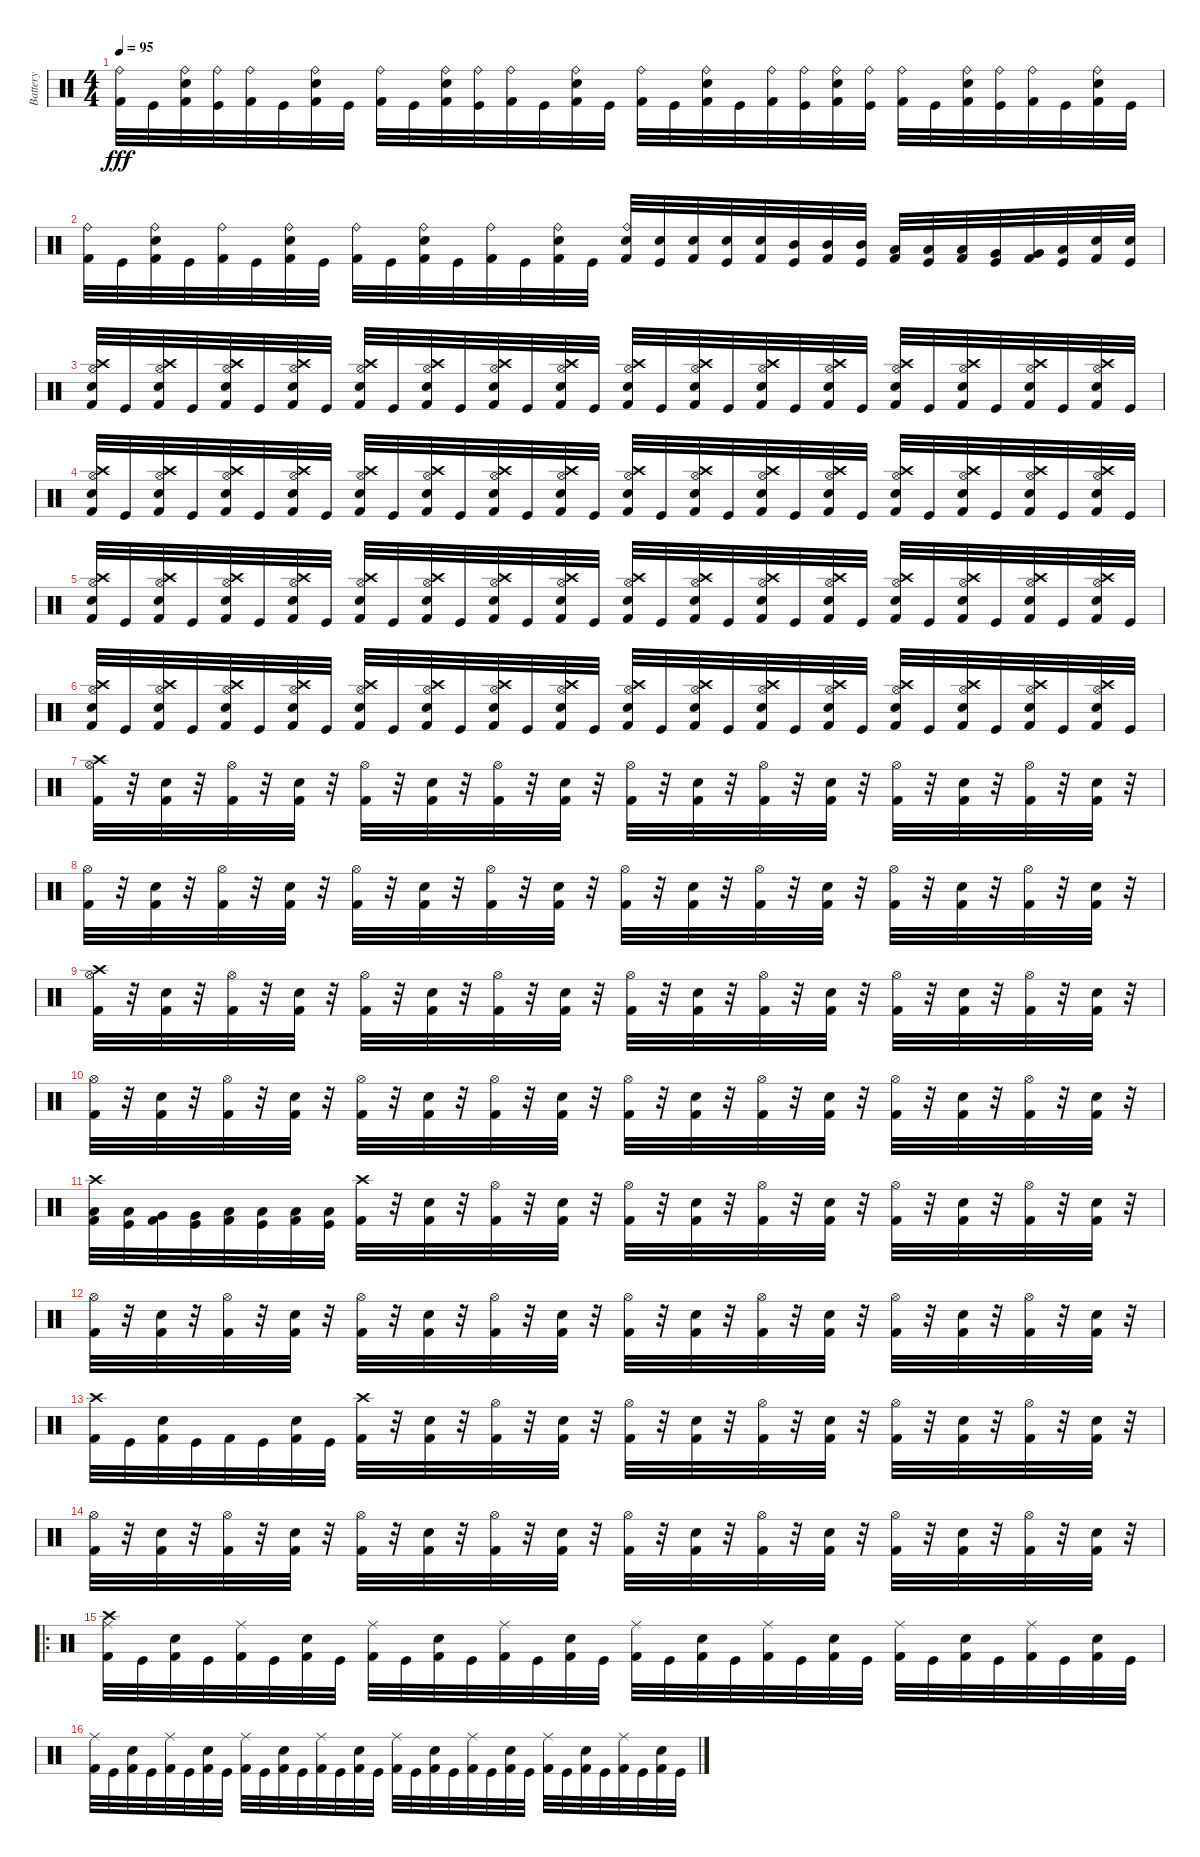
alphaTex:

\track ("Battery" "Battery") {instrument percussion}
\staff {score}
\articulation defaults
\ts (4 4)
\tempo 95
\clef neutral
\ks c
("Kick (hit) 2" "Ride (bell)").32{dy fff} "Kick (hit)".32 ("Ride (bell)" "Electric Snare (hit)" "Kick (hit) 2").32 ("Ride (bell)" "Kick (hit)").32 ("Kick (hit) 2" "Ride (bell)").32 "Kick (hit)".32 ("Ride (bell)" "Kick (hit) 2" "Electric Snare (hit)").32 "Kick (hit)".32 ("Kick (hit) 2" "Ride (bell)").32 "Kick (hit)".32 ("Electric Snare (hit)" "Kick (hit) 2" "Ride (bell)").32 ("Ride (bell)" "Kick (hit)").32 ("Ride (bell)" "Kick (hit) 2").32 "Kick (hit)".32 ("Kick (hit) 2" "Electric Snare (hit)" "Ride (bell)").32 "Kick (hit)".32 ("Ride (bell)" "Kick (hit) 2").32 "Kick (hit)".32 ("Kick (hit) 2" "Ride (bell)" "Electric Snare (hit)").32 "Kick (hit)".32 ("Ride (bell)" "Kick (hit) 2").32 ("Ride (bell)" "Kick (hit)").32 ("Electric Snare (hit)" "Kick (hit) 2" "Ride (bell)").32 ("Ride (bell)" "Kick (hit)").32 ("Ride (bell)" "Kick (hit) 2").32 "Kick (hit)".32 ("Kick (hit) 2" "Electric Snare (hit)" "Ride (bell)").32 ("Kick (hit)" "Ride (bell)").32 ("Ride (bell)" "Kick (hit) 2").32 "Kick (hit)".32 ("Electric Snare (hit)" "Kick (hit) 2" "Ride (bell)").32 "Kick (hit)".32 |
("Ride (bell)" "Kick (hit) 2").32 "Kick (hit)".32 ("Kick (hit) 2" "Ride (bell)" "Electric Snare (hit)").32 "Kick (hit)".32 ("Ride (bell)" "Kick (hit) 2").32 "Kick (hit)".32 ("Kick (hit) 2" "Electric Snare (hit)" "Ride (bell)").32 "Kick (hit)".32 ("Ride (bell)" "Kick (hit) 2").32 "Kick (hit)".32 ("Kick (hit) 2" "Ride (bell)" "Electric Snare (hit)").32 "Kick (hit)".32 ("Kick (hit) 2" "Ride (bell)").32 "Kick (hit)".32 ("Kick (hit) 2" "Electric Snare (hit)" "Ride (bell)").32 "Kick (hit)".32 ("Electric Snare (hit)" "Ride (bell)" "Kick (hit) 2").32 ("Kick (hit)" "Electric Snare (hit)").32 ("Electric Snare (hit)" "Kick (hit) 2").32 ("Electric Snare (hit)" "Kick (hit)").32 ("Kick (hit) 2" "Electric Snare (hit)").32 ("Mid Tom (hit)" "Kick (hit)").32 ("Kick (hit) 2" "Mid Tom (hit)").32 ("Mid Tom (hit)" "Kick (hit)").32 ("Kick (hit) 2" "Low Tom (hit)").32 ("Low Tom (hit)" "Kick (hit)").32 ("Low Tom (hit)" "Kick (hit) 2").32 ("Very Low Tom (hit)" "Kick (hit)").32 ("Kick (hit) 2" "Very Low Tom (hit)").32 ("Low Floor Tom (hit)" "Kick (hit)").32 ("Kick (hit) 2" "Electric Snare (hit)").32 ("Electric Snare (hit)" "Kick (hit)").32 |
("Hi-Hat (open)" "Kick (hit) 2" "Crash high (hit)" "Snare (hit) 2").32 "Kick (hit)".32 ("Crash high (hit)" "Kick (hit) 2" "Hi-Hat (open)" "Snare (hit) 2").32 "Kick (hit)".32 ("Hi-Hat (open)" "Crash high (hit)" "Kick (hit) 2" "Snare (hit) 2").32 "Kick (hit)".32 ("Kick (hit) 2" "Crash high (hit)" "Hi-Hat (open)" "Snare (hit) 2").32 "Kick (hit)".32 ("Kick (hit) 2" "Hi-Hat (open)" "Snare (hit) 2" "Crash high (hit)").32 "Kick (hit)".32 ("Kick (hit) 2" "Snare (hit) 2" "Hi-Hat (open)" "Crash high (hit)").32 "Kick (hit)".32 ("Hi-Hat (open)" "Kick (hit) 2" "Snare (hit) 2" "Crash high (hit)").32 "Kick (hit)".32 ("Kick (hit) 2" "Hi-Hat (open)" "Crash high (hit)" "Snare (hit) 2").32 "Kick (hit)".32 ("Kick (hit) 2" "Snare (hit) 2" "Hi-Hat (open)" "Crash high (hit)").32 "Kick (hit)".32 ("Snare (hit) 2" "Hi-Hat (open)" "Crash high (hit)" "Kick (hit) 2").32 "Kick (hit)".32 ("Snare (hit) 2" "Hi-Hat (open)" "Kick (hit) 2" "Crash high (hit)").32 "Kick (hit)".32 ("Snare (hit) 2" "Kick (hit) 2" "Crash high (hit)" "Hi-Hat (open)").32 "Kick (hit)".32 ("Crash high (hit)" "Hi-Hat (open)" "Kick (hit) 2" "Snare (hit) 2").32 "Kick (hit)".32 ("Snare (hit) 2" "Kick (hit) 2" "Crash high (hit)" "Hi-Hat (open)").32 "Kick (hit)".32 ("Snare (hit) 2" "Crash high (hit)" "Hi-Hat (open)" "Kick (hit) 2").32 "Kick (hit)".32 ("Hi-Hat (open)" "Kick (hit) 2" "Crash high (hit)" "Snare (hit) 2").32 "Kick (hit)".32 |
("Hi-Hat (open)" "Kick (hit) 2" "Crash high (hit)" "Snare (hit) 2").32 "Kick (hit)".32 ("Crash high (hit)" "Kick (hit) 2" "Hi-Hat (open)" "Snare (hit) 2").32 "Kick (hit)".32 ("Hi-Hat (open)" "Crash high (hit)" "Kick (hit) 2" "Snare (hit) 2").32 "Kick (hit)".32 ("Kick (hit) 2" "Crash high (hit)" "Hi-Hat (open)" "Snare (hit) 2").32 "Kick (hit)".32 ("Kick (hit) 2" "Hi-Hat (open)" "Snare (hit) 2" "Crash high (hit)").32 "Kick (hit)".32 ("Kick (hit) 2" "Snare (hit) 2" "Hi-Hat (open)" "Crash high (hit)").32 "Kick (hit)".32 ("Hi-Hat (open)" "Kick (hit) 2" "Snare (hit) 2" "Crash high (hit)").32 "Kick (hit)".32 ("Kick (hit) 2" "Hi-Hat (open)" "Crash high (hit)" "Snare (hit) 2").32 "Kick (hit)".32 ("Kick (hit) 2" "Snare (hit) 2" "Hi-Hat (open)" "Crash high (hit)").32 "Kick (hit)".32 ("Snare (hit) 2" "Hi-Hat (open)" "Crash high (hit)" "Kick (hit) 2").32 "Kick (hit)".32 ("Snare (hit) 2" "Hi-Hat (open)" "Kick (hit) 2" "Crash high (hit)").32 "Kick (hit)".32 ("Snare (hit) 2" "Kick (hit) 2" "Crash high (hit)" "Hi-Hat (open)").32 "Kick (hit)".32 ("Crash high (hit)" "Hi-Hat (open)" "Kick (hit) 2" "Snare (hit) 2").32 "Kick (hit)".32 ("Snare (hit) 2" "Kick (hit) 2" "Crash high (hit)" "Hi-Hat (open)").32 "Kick (hit)".32 ("Snare (hit) 2" "Crash high (hit)" "Hi-Hat (open)" "Kick (hit) 2").32 "Kick (hit)".32 ("Hi-Hat (open)" "Kick (hit) 2" "Crash high (hit)" "Snare (hit) 2").32 "Kick (hit)".32 |
("Hi-Hat (open)" "Kick (hit) 2" "Crash high (hit)" "Snare (hit) 2").32 "Kick (hit)".32 ("Crash high (hit)" "Kick (hit) 2" "Hi-Hat (open)" "Snare (hit) 2").32 "Kick (hit)".32 ("Hi-Hat (open)" "Crash high (hit)" "Kick (hit) 2" "Snare (hit) 2").32 "Kick (hit)".32 ("Kick (hit) 2" "Crash high (hit)" "Hi-Hat (open)" "Snare (hit) 2").32 "Kick (hit)".32 ("Kick (hit) 2" "Hi-Hat (open)" "Snare (hit) 2" "Crash high (hit)").32 "Kick (hit)".32 ("Kick (hit) 2" "Snare (hit) 2" "Hi-Hat (open)" "Crash high (hit)").32 "Kick (hit)".32 ("Hi-Hat (open)" "Kick (hit) 2" "Snare (hit) 2" "Crash high (hit)").32 "Kick (hit)".32 ("Kick (hit) 2" "Hi-Hat (open)" "Crash high (hit)" "Snare (hit) 2").32 "Kick (hit)".32 ("Kick (hit) 2" "Snare (hit) 2" "Hi-Hat (open)" "Crash high (hit)").32 "Kick (hit)".32 ("Snare (hit) 2" "Hi-Hat (open)" "Crash high (hit)" "Kick (hit) 2").32 "Kick (hit)".32 ("Snare (hit) 2" "Hi-Hat (open)" "Kick (hit) 2" "Crash high (hit)").32 "Kick (hit)".32 ("Snare (hit) 2" "Kick (hit) 2" "Crash high (hit)" "Hi-Hat (open)").32 "Kick (hit)".32 ("Crash high (hit)" "Hi-Hat (open)" "Kick (hit) 2" "Snare (hit) 2").32 "Kick (hit)".32 ("Snare (hit) 2" "Kick (hit) 2" "Crash high (hit)" "Hi-Hat (open)").32 "Kick (hit)".32 ("Snare (hit) 2" "Crash high (hit)" "Hi-Hat (open)" "Kick (hit) 2").32 "Kick (hit)".32 ("Hi-Hat (open)" "Kick (hit) 2" "Crash high (hit)" "Snare (hit) 2").32 "Kick (hit)".32 |
("Hi-Hat (open)" "Kick (hit) 2" "Crash high (hit)" "Snare (hit) 2").32 "Kick (hit)".32 ("Crash high (hit)" "Kick (hit) 2" "Hi-Hat (open)" "Snare (hit) 2").32 "Kick (hit)".32 ("Hi-Hat (open)" "Crash high (hit)" "Kick (hit) 2" "Snare (hit) 2").32 "Kick (hit)".32 ("Kick (hit) 2" "Crash high (hit)" "Hi-Hat (open)" "Snare (hit) 2").32 "Kick (hit)".32 ("Kick (hit) 2" "Hi-Hat (open)" "Snare (hit) 2" "Crash high (hit)").32 "Kick (hit)".32 ("Kick (hit) 2" "Snare (hit) 2" "Hi-Hat (open)" "Crash high (hit)").32 "Kick (hit)".32 ("Hi-Hat (open)" "Kick (hit) 2" "Snare (hit) 2" "Crash high (hit)").32 "Kick (hit)".32 ("Kick (hit) 2" "Hi-Hat (open)" "Crash high (hit)" "Snare (hit) 2").32 "Kick (hit)".32 ("Kick (hit) 2" "Snare (hit) 2" "Hi-Hat (open)" "Crash high (hit)").32 "Kick (hit)".32 ("Snare (hit) 2" "Hi-Hat (open)" "Crash high (hit)" "Kick (hit) 2").32 "Kick (hit)".32 ("Snare (hit) 2" "Hi-Hat (open)" "Kick (hit) 2" "Crash high (hit)").32 "Kick (hit)".32 ("Snare (hit) 2" "Kick (hit) 2" "Crash high (hit)" "Hi-Hat (open)").32 "Kick (hit)".32 ("Crash high (hit)" "Hi-Hat (open)" "Kick (hit) 2" "Snare (hit) 2").32 "Kick (hit)".32 ("Snare (hit) 2" "Kick (hit) 2" "Crash high (hit)" "Hi-Hat (open)").32 "Kick (hit)".32 ("Snare (hit) 2" "Crash high (hit)" "Hi-Hat (open)" "Kick (hit) 2").32 "Kick (hit)".32 ("Hi-Hat (open)" "Kick (hit) 2" "Crash high (hit)" "Snare (hit) 2").32 "Kick (hit)".32 |
("Kick (hit) 2" "Hi-Hat (open)" "Crash high (hit)").32 r.32 ("Electric Snare (hit)" "Kick (hit) 2").32 r.32 ("Kick (hit) 2" "Hi-Hat (open)").32 r.32 ("Kick (hit) 2" "Electric Snare (hit)").32 r.32 ("Kick (hit) 2" "Hi-Hat (open)").32 r.32 ("Kick (hit) 2" "Electric Snare (hit)").32 r.32 ("Hi-Hat (open)" "Kick (hit) 2").32 r.32 ("Electric Snare (hit)" "Kick (hit) 2").32 r.32 ("Hi-Hat (open)" "Kick (hit) 2").32 r.32 ("Electric Snare (hit)" "Kick (hit) 2").32 r.32 ("Hi-Hat (open)" "Kick (hit) 2").32 r.32 ("Electric Snare (hit)" "Kick (hit) 2").32 r.32 ("Hi-Hat (open)" "Kick (hit) 2").32 r.32 ("Electric Snare (hit)" "Kick (hit) 2").32 r.32 ("Hi-Hat (open)" "Kick (hit) 2").32 r.32 ("Electric Snare (hit)" "Kick (hit) 2").32 r.32 |
("Kick (hit) 2" "Hi-Hat (open)").32 r.32 ("Kick (hit) 2" "Electric Snare (hit)").32 r.32 ("Kick (hit) 2" "Hi-Hat (open)").32 r.32 ("Kick (hit) 2" "Electric Snare (hit)").32 r.32 ("Hi-Hat (open)" "Kick (hit) 2").32 r.32 ("Kick (hit) 2" "Electric Snare (hit)").32 r.32 ("Kick (hit) 2" "Hi-Hat (open)").32 r.32 ("Kick (hit) 2" "Electric Snare (hit)").32 r.32 ("Kick (hit) 2" "Hi-Hat (open)").32 r.32 ("Electric Snare (hit)" "Kick (hit) 2").32 r.32 ("Hi-Hat (open)" "Kick (hit) 2").32 r.32 ("Electric Snare (hit)" "Kick (hit) 2").32 r.32 ("Hi-Hat (open)" "Kick (hit) 2").32 r.32 ("Kick (hit) 2" "Electric Snare (hit)").32 r.32 ("Kick (hit) 2" "Hi-Hat (open)").32 r.32 ("Electric Snare (hit)" "Kick (hit) 2").32 r.32 |
("Kick (hit) 2" "Hi-Hat (open)" "Crash high (hit)").32 r.32 ("Electric Snare (hit)" "Kick (hit) 2").32 r.32 ("Kick (hit) 2" "Hi-Hat (open)").32 r.32 ("Kick (hit) 2" "Electric Snare (hit)").32 r.32 ("Kick (hit) 2" "Hi-Hat (open)").32 r.32 ("Kick (hit) 2" "Electric Snare (hit)").32 r.32 ("Hi-Hat (open)" "Kick (hit) 2").32 r.32 ("Electric Snare (hit)" "Kick (hit) 2").32 r.32 ("Hi-Hat (open)" "Kick (hit) 2").32 r.32 ("Electric Snare (hit)" "Kick (hit) 2").32 r.32 ("Hi-Hat (open)" "Kick (hit) 2").32 r.32 ("Electric Snare (hit)" "Kick (hit) 2").32 r.32 ("Hi-Hat (open)" "Kick (hit) 2").32 r.32 ("Electric Snare (hit)" "Kick (hit) 2").32 r.32 ("Hi-Hat (open)" "Kick (hit) 2").32 r.32 ("Electric Snare (hit)" "Kick (hit) 2").32 r.32 |
("Kick (hit) 2" "Hi-Hat (open)").32 r.32 ("Kick (hit) 2" "Electric Snare (hit)").32 r.32 ("Kick (hit) 2" "Hi-Hat (open)").32 r.32 ("Kick (hit) 2" "Electric Snare (hit)").32 r.32 ("Hi-Hat (open)" "Kick (hit) 2").32 r.32 ("Kick (hit) 2" "Electric Snare (hit)").32 r.32 ("Kick (hit) 2" "Hi-Hat (open)").32 r.32 ("Kick (hit) 2" "Electric Snare (hit)").32 r.32 ("Kick (hit) 2" "Hi-Hat (open)").32 r.32 ("Electric Snare (hit)" "Kick (hit) 2").32 r.32 ("Hi-Hat (open)" "Kick (hit) 2").32 r.32 ("Electric Snare (hit)" "Kick (hit) 2").32 r.32 ("Hi-Hat (open)" "Kick (hit) 2").32 r.32 ("Kick (hit) 2" "Electric Snare (hit)").32 r.32 ("Kick (hit) 2" "Hi-Hat (open)").32 r.32 ("Electric Snare (hit)" "Kick (hit) 2").32 r.32 |
("Crash high (hit)" "Low Tom (hit)" "Kick (hit) 2").32 ("Low Tom (hit)" "Kick (hit)").32 ("Very Low Tom (hit)" "Kick (hit) 2").32 ("Very Low Tom (hit)" "Kick (hit)").32 ("Low Floor Tom (hit)" "Kick (hit) 2").32 ("Kick (hit)" "Low Floor Tom (hit)").32 ("Low Tom (hit)" "Kick (hit) 2").32 ("Kick (hit)" "Low Tom (hit)").32 ("Crash high (hit)" "Kick (hit) 2").32 r.32 ("Electric Snare (hit)" "Kick (hit) 2").32 r.32 ("Kick (hit) 2" "Hi-Hat (open)").32 r.32 ("Kick (hit) 2" "Electric Snare (hit)").32 r.32 ("Kick (hit) 2" "Hi-Hat (open)").32 r.32 ("Electric Snare (hit)" "Kick (hit) 2").32 r.32 ("Hi-Hat (open)" "Kick (hit) 2").32 r.32 ("Electric Snare (hit)" "Kick (hit) 2").32 r.32 ("Hi-Hat (open)" "Kick (hit) 2").32 r.32 ("Electric Snare (hit)" "Kick (hit) 2").32 r.32 ("Kick (hit) 2" "Hi-Hat (open)").32 r.32 ("Kick (hit) 2" "Electric Snare (hit)").32 r.32 |
("Hi-Hat (open)" "Kick (hit) 2").32 r.32 ("Kick (hit) 2" "Electric Snare (hit)").32 r.32 ("Kick (hit) 2" "Hi-Hat (open)").32 r.32 ("Electric Snare (hit)" "Kick (hit) 2").32 r.32 ("Hi-Hat (open)" "Kick (hit) 2").32 r.32 ("Kick (hit) 2" "Electric Snare (hit)").32 r.32 ("Kick (hit) 2" "Hi-Hat (open)").32 r.32 ("Kick (hit) 2" "Electric Snare (hit)").32 r.32 ("Hi-Hat (open)" "Kick (hit) 2").32 r.32 ("Kick (hit) 2" "Electric Snare (hit)").32 r.32 ("Kick (hit) 2" "Hi-Hat (open)").32 r.32 ("Kick (hit) 2" "Electric Snare (hit)").32 r.32 ("Hi-Hat (open)" "Kick (hit) 2").32 r.32 ("Electric Snare (hit)" "Kick (hit) 2").32 r.32 ("Hi-Hat (open)" "Kick (hit) 2").32 r.32 ("Kick (hit) 2" "Electric Snare (hit)").32 r.32 |
("Crash high (hit)" "Kick (hit) 2").32 "Kick (hit)".32 ("Kick (hit) 2" "Electric Snare (hit)").32 "Kick (hit)".32 "Kick (hit) 2".32 "Kick (hit)".32 ("Electric Snare (hit)" "Kick (hit) 2").32 "Kick (hit)".32 ("Kick (hit) 2" "Crash high (hit)").32 r.32 ("Electric Snare (hit)" "Kick (hit) 2").32 r.32 ("Hi-Hat (open)" "Kick (hit) 2").32 r.32 ("Kick (hit) 2" "Electric Snare (hit)").32 r.32 ("Hi-Hat (open)" "Kick (hit) 2").32 r.32 ("Electric Snare (hit)" "Kick (hit) 2").32 r.32 ("Kick (hit) 2" "Hi-Hat (open)").32 r.32 ("Kick (hit) 2" "Electric Snare (hit)").32 r.32 ("Kick (hit) 2" "Hi-Hat (open)").32 r.32 ("Electric Snare (hit)" "Kick (hit) 2").32 r.32 ("Hi-Hat (open)" "Kick (hit) 2").32 r.32 ("Kick (hit) 2" "Electric Snare (hit)").32 r.32 |
("Hi-Hat (open)" "Kick (hit) 2").32 r.32 ("Kick (hit) 2" "Electric Snare (hit)").32 r.32 ("Hi-Hat (open)" "Kick (hit) 2").32 r.32 ("Electric Snare (hit)" "Kick (hit) 2").32 r.32 ("Hi-Hat (open)" "Kick (hit) 2").32 r.32 ("Kick (hit) 2" "Electric Snare (hit)").32 r.32 ("Kick (hit) 2" "Hi-Hat (open)").32 r.32 ("Kick (hit) 2" "Electric Snare (hit)").32 r.32 ("Hi-Hat (open)" "Kick (hit) 2").32 r.32 ("Electric Snare (hit)" "Kick (hit) 2").32 r.32 ("Hi-Hat (open)" "Kick (hit) 2").32 r.32 ("Kick (hit) 2" "Electric Snare (hit)").32 r.32 ("Kick (hit) 2" "Hi-Hat (open)").32 r.32 ("Electric Snare (hit)" "Kick (hit) 2").32 r.32 ("Hi-Hat (open)" "Kick (hit) 2").32 r.32 ("Kick (hit) 2" "Electric Snare (hit)").32 r.32 |
\ro
("Ride (middle)" "Kick (hit) 2" "Crash high (hit)").32 "Kick (hit)".32 ("Kick (hit) 2" "Electric Snare (hit)").32 "Kick (hit)".32 ("Ride (middle)" "Kick (hit) 2").32 "Kick (hit)".32 ("Electric Snare (hit)" "Kick (hit) 2").32 "Kick (hit)".32 ("Ride (middle)" "Kick (hit) 2").32 "Kick (hit)".32 ("Kick (hit) 2" "Electric Snare (hit)").32 "Kick (hit)".32 ("Kick (hit) 2" "Ride (middle)").32 "Kick (hit)".32 ("Kick (hit) 2" "Electric Snare (hit)").32 "Kick (hit)".32 ("Kick (hit) 2" "Ride (middle)").32 "Kick (hit)".32 ("Electric Snare (hit)" "Kick (hit) 2").32 "Kick (hit)".32 ("Kick (hit) 2" "Ride (middle)").32 "Kick (hit)".32 ("Kick (hit) 2" "Electric Snare (hit)").32 "Kick (hit)".32 ("Ride (middle)" "Kick (hit) 2").32 "Kick (hit)".32 ("Electric Snare (hit)" "Kick (hit) 2").32 "Kick (hit)".32 ("Kick (hit) 2" "Ride (middle)").32 "Kick (hit)".32 ("Electric Snare (hit)" "Kick (hit) 2").32 "Kick (hit)".32 |
("Kick (hit) 2" "Ride (middle)").32 "Kick (hit)".32 ("Kick (hit) 2" "Electric Snare (hit)").32 "Kick (hit)".32 ("Ride (middle)" "Kick (hit) 2").32 "Kick (hit)".32 ("Kick (hit) 2" "Electric Snare (hit)").32 "Kick (hit)".32 ("Ride (middle)" "Kick (hit) 2").32 "Kick (hit)".32 ("Electric Snare (hit)" "Kick (hit) 2").32 "Kick (hit)".32 ("Ride (middle)" "Kick (hit) 2").32 "Kick (hit)".32 ("Electric Snare (hit)" "Kick (hit) 2").32 "Kick (hit)".32 ("Ride (middle)" "Kick (hit) 2").32 "Kick (hit)".32 ("Kick (hit) 2" "Electric Snare (hit)").32 "Kick (hit)".32 ("Ride (middle)" "Kick (hit) 2").32 "Kick (hit)".32 ("Kick (hit) 2" "Electric Snare (hit)").32 "Kick (hit)".32 ("Kick (hit) 2" "Ride (middle)").32 "Kick (hit)".32 ("Electric Snare (hit)" "Kick (hit) 2").32 "Kick (hit)".32 ("Ride (middle)" "Kick (hit) 2").32 "Kick (hit)".32 ("Kick (hit) 2" "Electric Snare (hit)").32 "Kick (hit)".32
